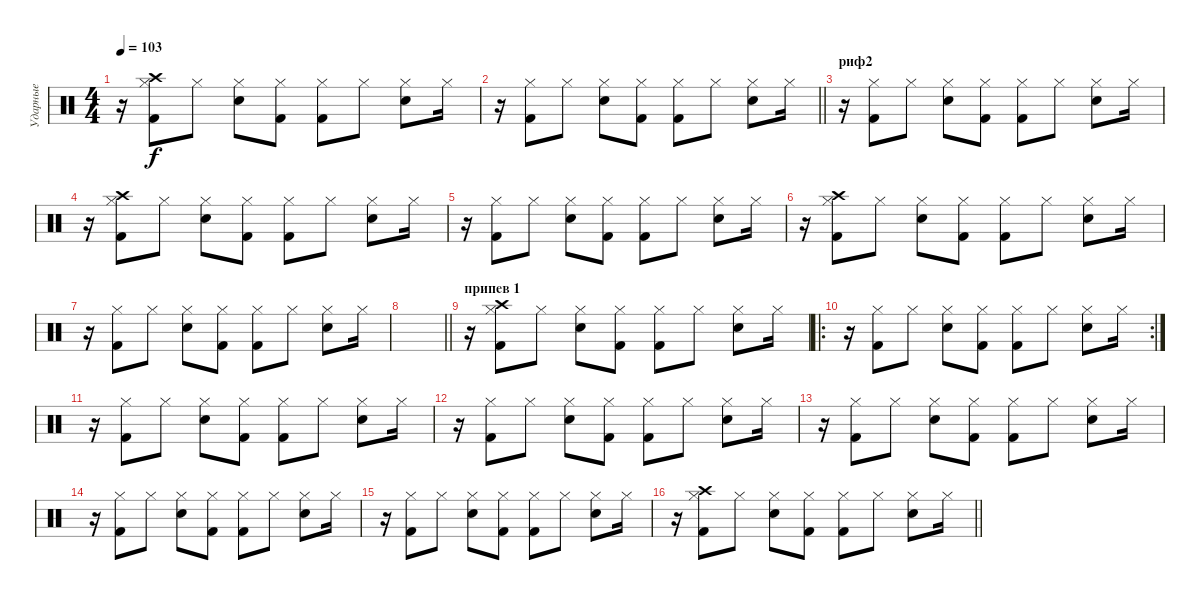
\track ("Ударные" "Ударные") {instrument percussion}
\staff {score}
\articulation defaults
\ts (4 4)
\tempo 103
\clef neutral
\ks c
r.16{dy f} ("Hi-Hat (closed)" "Kick (hit) 2" "Crash high (hit)").8 "Hi-Hat (closed)".8 ("Hi-Hat (closed)" "Electric Snare (hit)").8 ("Hi-Hat (closed)" "Kick (hit) 2").8 ("Hi-Hat (closed)" "Kick (hit) 2").8 "Hi-Hat (closed)".8 ("Hi-Hat (closed)" "Electric Snare (hit)").8 "Hi-Hat (closed)".16 |
\barLineRight lightlight
r.16 ("Hi-Hat (closed)" "Kick (hit) 2").8 "Hi-Hat (closed)".8 ("Hi-Hat (closed)" "Electric Snare (hit)").8 ("Hi-Hat (closed)" "Kick (hit) 2").8 ("Hi-Hat (closed)" "Kick (hit) 2").8 "Hi-Hat (closed)".8 ("Hi-Hat (closed)" "Electric Snare (hit)").8 "Hi-Hat (closed)".16 |
\section ("" "риф2")
r.16 ("Hi-Hat (closed)" "Kick (hit) 2").8 "Hi-Hat (closed)".8 ("Hi-Hat (closed)" "Electric Snare (hit)").8 ("Hi-Hat (closed)" "Kick (hit) 2").8 ("Hi-Hat (closed)" "Kick (hit) 2").8 "Hi-Hat (closed)".8 ("Hi-Hat (closed)" "Electric Snare (hit)").8 "Hi-Hat (closed)".16 |
r.16 ("Hi-Hat (closed)" "Kick (hit) 2" "Crash high (hit)").8 "Hi-Hat (closed)".8 ("Hi-Hat (closed)" "Electric Snare (hit)").8 ("Hi-Hat (closed)" "Kick (hit) 2").8 ("Hi-Hat (closed)" "Kick (hit) 2").8 "Hi-Hat (closed)".8 ("Hi-Hat (closed)" "Electric Snare (hit)").8 "Hi-Hat (closed)".16 |
r.16 ("Hi-Hat (closed)" "Kick (hit) 2").8 "Hi-Hat (closed)".8 ("Hi-Hat (closed)" "Electric Snare (hit)").8 ("Hi-Hat (closed)" "Kick (hit) 2").8 ("Hi-Hat (closed)" "Kick (hit) 2").8 "Hi-Hat (closed)".8 ("Hi-Hat (closed)" "Electric Snare (hit)").8 "Hi-Hat (closed)".16 |
r.16 ("Hi-Hat (closed)" "Kick (hit) 2" "Crash high (hit)").8 "Hi-Hat (closed)".8 ("Hi-Hat (closed)" "Electric Snare (hit)").8 ("Hi-Hat (closed)" "Kick (hit) 2").8 ("Hi-Hat (closed)" "Kick (hit) 2").8 "Hi-Hat (closed)".8 ("Hi-Hat (closed)" "Electric Snare (hit)").8 "Hi-Hat (closed)".16 |
r.16 ("Hi-Hat (closed)" "Kick (hit) 2").8 "Hi-Hat (closed)".8 ("Hi-Hat (closed)" "Electric Snare (hit)").8 ("Hi-Hat (closed)" "Kick (hit) 2").8 ("Hi-Hat (closed)" "Kick (hit) 2").8 "Hi-Hat (closed)".8 ("Hi-Hat (closed)" "Electric Snare (hit)").8 "Hi-Hat (closed)".16 |
\barLineRight lightlight
|
\section ("" "припев 1")
r.16 ("Hi-Hat (closed)" "Kick (hit) 2" "Crash high (hit)").8 "Hi-Hat (closed)".8 ("Hi-Hat (closed)" "Electric Snare (hit)").8 ("Hi-Hat (closed)" "Kick (hit) 2").8 ("Hi-Hat (closed)" "Kick (hit) 2").8 "Hi-Hat (closed)".8 ("Hi-Hat (closed)" "Electric Snare (hit)").8 "Hi-Hat (closed)".16 |
\ro
\rc 2
r.16 ("Hi-Hat (closed)" "Kick (hit) 2").8 "Hi-Hat (closed)".8 ("Hi-Hat (closed)" "Electric Snare (hit)").8 ("Hi-Hat (closed)" "Kick (hit) 2").8 ("Hi-Hat (closed)" "Kick (hit) 2").8 "Hi-Hat (closed)".8 ("Hi-Hat (closed)" "Electric Snare (hit)").8 "Hi-Hat (closed)".16 |
r.16 ("Hi-Hat (closed)" "Kick (hit) 2").8 "Hi-Hat (closed)".8 ("Hi-Hat (closed)" "Electric Snare (hit)").8 ("Hi-Hat (closed)" "Kick (hit) 2").8 ("Hi-Hat (closed)" "Kick (hit) 2").8 "Hi-Hat (closed)".8 ("Hi-Hat (closed)" "Electric Snare (hit)").8 "Hi-Hat (closed)".16 |
r.16 ("Hi-Hat (closed)" "Kick (hit) 2").8 "Hi-Hat (closed)".8 ("Hi-Hat (closed)" "Electric Snare (hit)").8 ("Hi-Hat (closed)" "Kick (hit) 2").8 ("Hi-Hat (closed)" "Kick (hit) 2").8 "Hi-Hat (closed)".8 ("Hi-Hat (closed)" "Electric Snare (hit)").8 "Hi-Hat (closed)".16 |
r.16 ("Hi-Hat (closed)" "Kick (hit) 2").8 "Hi-Hat (closed)".8 ("Hi-Hat (closed)" "Electric Snare (hit)").8 ("Hi-Hat (closed)" "Kick (hit) 2").8 ("Hi-Hat (closed)" "Kick (hit) 2").8 "Hi-Hat (closed)".8 ("Hi-Hat (closed)" "Electric Snare (hit)").8 "Hi-Hat (closed)".16 |
r.16 ("Hi-Hat (closed)" "Kick (hit) 2").8 "Hi-Hat (closed)".8 ("Hi-Hat (closed)" "Electric Snare (hit)").8 ("Hi-Hat (closed)" "Kick (hit) 2").8 ("Hi-Hat (closed)" "Kick (hit) 2").8 "Hi-Hat (closed)".8 ("Hi-Hat (closed)" "Electric Snare (hit)").8 "Hi-Hat (closed)".16 |
r.16 ("Hi-Hat (closed)" "Kick (hit) 2").8 "Hi-Hat (closed)".8 ("Hi-Hat (closed)" "Electric Snare (hit)").8 ("Hi-Hat (closed)" "Kick (hit) 2").8 ("Hi-Hat (closed)" "Kick (hit) 2").8 "Hi-Hat (closed)".8 ("Hi-Hat (closed)" "Electric Snare (hit)").8 "Hi-Hat (closed)".16 |
\barLineRight lightlight
r.16 ("Hi-Hat (closed)" "Kick (hit) 2" "Crash high (hit)").8 "Hi-Hat (closed)".8 ("Hi-Hat (closed)" "Electric Snare (hit)").8 ("Hi-Hat (closed)" "Kick (hit) 2").8 ("Hi-Hat (closed)" "Kick (hit) 2").8 "Hi-Hat (closed)".8 ("Hi-Hat (closed)" "Electric Snare (hit)").8 "Hi-Hat (closed)".16
